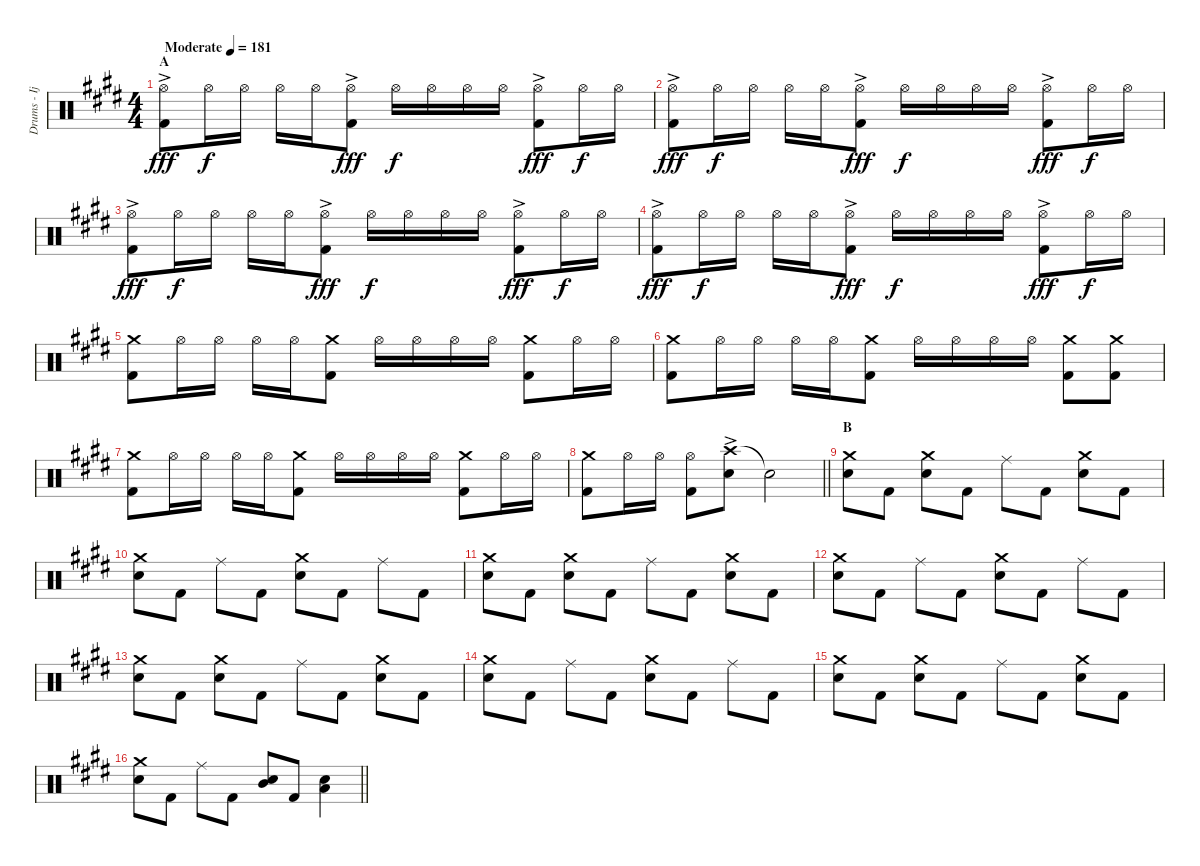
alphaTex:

\track ("Drums - Ijichi" "Drums - Ij") {instrument percussion}
\staff {score}
\articulation defaults
\ts (4 4)
\section ("" "A")
\tempo (181 "Moderate")
\clef neutral
\ks e
("Hi-Hat (open)"{ac} "Kick (hit) 2").8{dy fff} "Hi-Hat (open)".16{dy f} "Hi-Hat (open)".16 "Hi-Hat (open)".16 "Hi-Hat (open)".16 ("Hi-Hat (open)"{ac} "Kick (hit) 2").8{dy fff} "Hi-Hat (open)".16{dy f} "Hi-Hat (open)".16 "Hi-Hat (open)".16 "Hi-Hat (open)".16 ("Hi-Hat (open)"{ac} "Kick (hit) 2").8{dy fff} "Hi-Hat (open)".16{dy f} "Hi-Hat (open)".16 |
("Hi-Hat (open)"{ac} "Kick (hit) 2").8{dy fff} "Hi-Hat (open)".16{dy f} "Hi-Hat (open)".16 "Hi-Hat (open)".16 "Hi-Hat (open)".16 ("Hi-Hat (open)"{ac} "Kick (hit) 2").8{dy fff} "Hi-Hat (open)".16{dy f} "Hi-Hat (open)".16 "Hi-Hat (open)".16 "Hi-Hat (open)".16 ("Hi-Hat (open)"{ac} "Kick (hit) 2").8{dy fff} "Hi-Hat (open)".16{dy f} "Hi-Hat (open)".16 |
("Hi-Hat (open)"{ac} "Kick (hit) 2").8{dy fff} "Hi-Hat (open)".16{dy f} "Hi-Hat (open)".16 "Hi-Hat (open)".16 "Hi-Hat (open)".16 ("Hi-Hat (open)"{ac} "Kick (hit) 2").8{dy fff} "Hi-Hat (open)".16{dy f} "Hi-Hat (open)".16 "Hi-Hat (open)".16 "Hi-Hat (open)".16 ("Hi-Hat (open)"{ac} "Kick (hit) 2").8{dy fff} "Hi-Hat (open)".16{dy f} "Hi-Hat (open)".16 |
("Hi-Hat (open)"{ac} "Kick (hit) 2").8{dy fff} "Hi-Hat (open)".16{dy f} "Hi-Hat (open)".16 "Hi-Hat (open)".16 "Hi-Hat (open)".16 ("Hi-Hat (open)"{ac} "Kick (hit) 2").8{dy fff} "Hi-Hat (open)".16{dy f} "Hi-Hat (open)".16 "Hi-Hat (open)".16 "Hi-Hat (open)".16 ("Hi-Hat (open)"{ac} "Kick (hit) 2").8{dy fff} "Hi-Hat (open)".16{dy f} "Hi-Hat (open)".16 |
("Crash medium (hit)" "Kick (hit) 2").8 "Hi-Hat (open)".16 "Hi-Hat (open)".16 "Hi-Hat (open)".16 "Hi-Hat (open)".16 ("Crash medium (hit)" "Kick (hit) 2").8 "Hi-Hat (open)".16 "Hi-Hat (open)".16 "Hi-Hat (open)".16 "Hi-Hat (open)".16 ("Crash medium (hit)" "Kick (hit) 2").8 "Hi-Hat (open)".16 "Hi-Hat (open)".16 |
("Crash medium (hit)" "Kick (hit) 2").8 "Hi-Hat (open)".16 "Hi-Hat (open)".16 "Hi-Hat (open)".16 "Hi-Hat (open)".16 ("Crash medium (hit)" "Kick (hit) 2").8 "Hi-Hat (open)".16 "Hi-Hat (open)".16 "Hi-Hat (open)".16 "Hi-Hat (open)".16 ("Crash medium (hit)" "Kick (hit) 2").8 ("Crash medium (hit)" "Kick (hit) 2").8 |
("Crash medium (hit)" "Kick (hit) 2").8 "Hi-Hat (open)".16 "Hi-Hat (open)".16 "Hi-Hat (open)".16 "Hi-Hat (open)".16 ("Crash medium (hit)" "Kick (hit) 2").8 "Hi-Hat (open)".16 "Hi-Hat (open)".16 "Hi-Hat (open)".16 "Hi-Hat (open)".16 ("Crash medium (hit)" "Kick (hit) 2").8 "Hi-Hat (open)".16 "Hi-Hat (open)".16 |
\barLineRight lightlight
("Crash medium (hit)" "Kick (hit) 2").8 "Hi-Hat (open)".16 "Hi-Hat (open)".16 ("Hi-Hat (open)" "Kick (hit) 2").8 ("Crash high (hit)"{ac} "Electric Snare (hit)").8 "Snare (hit)"{t}.2 |
\section ("" "B")
("Crash medium (hit)" "Electric Snare (hit)").8 "Kick (hit) 2".8 ("Crash medium (hit)" "Electric Snare (hit)").8 "Kick (hit) 2".8 "Ride (middle)".8 "Kick (hit) 2".8 ("Crash medium (hit)" "Electric Snare (hit)").8 "Kick (hit) 2".8 |
("Crash medium (hit)" "Electric Snare (hit)").8 "Kick (hit) 2".8 "Ride (middle)".8 "Kick (hit) 2".8 ("Crash medium (hit)" "Electric Snare (hit)").8 "Kick (hit) 2".8 "Ride (middle)".8 "Kick (hit) 2".8 |
("Crash medium (hit)" "Electric Snare (hit)").8 "Kick (hit) 2".8 ("Crash medium (hit)" "Electric Snare (hit)").8 "Kick (hit) 2".8 "Ride (middle)".8 "Kick (hit) 2".8 ("Crash medium (hit)" "Electric Snare (hit)").8 "Kick (hit) 2".8 |
("Crash medium (hit)" "Electric Snare (hit)").8 "Kick (hit) 2".8 "Ride (middle)".8 "Kick (hit) 2".8 ("Crash medium (hit)" "Electric Snare (hit)").8 "Kick (hit) 2".8 "Ride (middle)".8 "Kick (hit) 2".8 |
("Crash medium (hit)" "Electric Snare (hit)").8 "Kick (hit) 2".8 ("Crash medium (hit)" "Electric Snare (hit)").8 "Kick (hit) 2".8 "Ride (middle)".8 "Kick (hit) 2".8 ("Crash medium (hit)" "Electric Snare (hit)").8 "Kick (hit) 2".8 |
("Crash medium (hit)" "Electric Snare (hit)").8 "Kick (hit) 2".8 "Ride (middle)".8 "Kick (hit) 2".8 ("Crash medium (hit)" "Electric Snare (hit)").8 "Kick (hit) 2".8 "Ride (middle)".8 "Kick (hit) 2".8 |
("Crash medium (hit)" "Electric Snare (hit)").8 "Kick (hit) 2".8 ("Crash medium (hit)" "Electric Snare (hit)").8 "Kick (hit) 2".8 "Ride (middle)".8 "Kick (hit) 2".8 ("Crash medium (hit)" "Electric Snare (hit)").8 "Kick (hit) 2".8 |
\barLineRight lightlight
("Crash medium (hit)" "Electric Snare (hit)").8 "Kick (hit) 2".8 "Ride (middle)".8 "Kick (hit) 2".8 ("Electric Snare (hit)" "Mid Tom (hit)").8 "Kick (hit) 2".8 ("Electric Snare (hit)" "Low Tom (hit)").4
